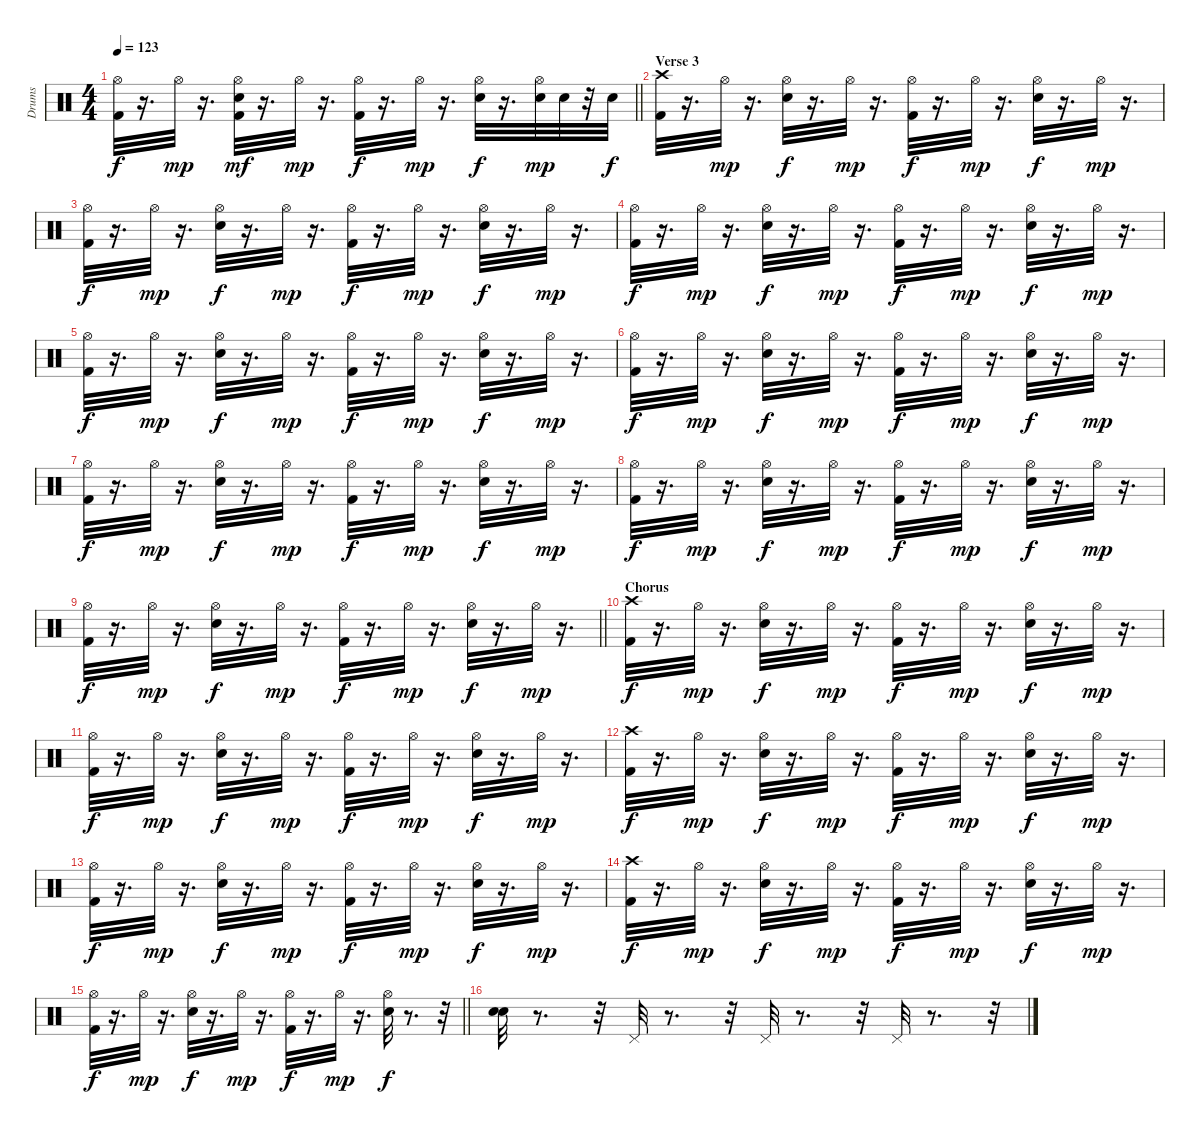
\track ("Drums" "Drums") {instrument percussion}
\staff {score}
\articulation defaults
\ts (4 4)
\tempo 123
\clef neutral
\barLineRight lightlight
\ks c
("Kick (hit) 2" "Hi-Hat (open)").32{dy f} r.16{d} "Hi-Hat (open)".32{dy mp} r.16{d} ("Kick (hit) 2" "Electric Snare (hit)" "Hi-Hat (open)").32{dy mf} r.16{d} "Hi-Hat (open)".32{dy mp} r.16{d} ("Kick (hit) 2" "Hi-Hat (open)").32{dy f} r.16{d} "Hi-Hat (open)".32{dy mp} r.16{d} ("Electric Snare (hit)" "Hi-Hat (open)").32{dy f} r.16{d} ("Electric Snare (hit)" "Hi-Hat (open)").32{dy mp} "Electric Snare (hit)".32 r.32 "Electric Snare (hit)".32{dy f} |
\section ("" "Verse 3")
("Crash high (hit)" "Kick (hit) 2").32 r.16{d} "Hi-Hat (open)".32{dy mp} r.16{d} ("Hi-Hat (open)" "Electric Snare (hit)").32{dy f} r.16{d} "Hi-Hat (open)".32{dy mp} r.16{d} ("Kick (hit) 2" "Hi-Hat (open)").32{dy f} r.16{d} "Hi-Hat (open)".32{dy mp} r.16{d} ("Hi-Hat (open)" "Electric Snare (hit)").32{dy f} r.16{d} "Hi-Hat (open)".32{dy mp} r.16{d} |
("Hi-Hat (open)" "Kick (hit) 2").32{dy f} r.16{d} "Hi-Hat (open)".32{dy mp} r.16{d} ("Hi-Hat (open)" "Electric Snare (hit)").32{dy f} r.16{d} "Hi-Hat (open)".32{dy mp} r.16{d} ("Hi-Hat (open)" "Kick (hit) 2").32{dy f} r.16{d} "Hi-Hat (open)".32{dy mp} r.16{d} ("Hi-Hat (open)" "Electric Snare (hit)").32{dy f} r.16{d} "Hi-Hat (open)".32{dy mp} r.16{d} |
("Hi-Hat (open)" "Kick (hit) 2").32{dy f} r.16{d} "Hi-Hat (open)".32{dy mp} r.16{d} ("Hi-Hat (open)" "Electric Snare (hit)").32{dy f} r.16{d} "Hi-Hat (open)".32{dy mp} r.16{d} ("Hi-Hat (open)" "Kick (hit) 2").32{dy f} r.16{d} "Hi-Hat (open)".32{dy mp} r.16{d} ("Hi-Hat (open)" "Electric Snare (hit)").32{dy f} r.16{d} "Hi-Hat (open)".32{dy mp} r.16{d} |
("Hi-Hat (open)" "Kick (hit) 2").32{dy f} r.16{d} "Hi-Hat (open)".32{dy mp} r.16{d} ("Hi-Hat (open)" "Electric Snare (hit)").32{dy f} r.16{d} "Hi-Hat (open)".32{dy mp} r.16{d} ("Hi-Hat (open)" "Kick (hit) 2").32{dy f} r.16{d} "Hi-Hat (open)".32{dy mp} r.16{d} ("Hi-Hat (open)" "Electric Snare (hit)").32{dy f} r.16{d} "Hi-Hat (open)".32{dy mp} r.16{d} |
("Hi-Hat (open)" "Kick (hit) 2").32{dy f} r.16{d} "Hi-Hat (open)".32{dy mp} r.16{d} ("Hi-Hat (open)" "Electric Snare (hit)").32{dy f} r.16{d} "Hi-Hat (open)".32{dy mp} r.16{d} ("Hi-Hat (open)" "Kick (hit) 2").32{dy f} r.16{d} "Hi-Hat (open)".32{dy mp} r.16{d} ("Hi-Hat (open)" "Electric Snare (hit)").32{dy f} r.16{d} "Hi-Hat (open)".32{dy mp} r.16{d} |
("Hi-Hat (open)" "Kick (hit) 2").32{dy f} r.16{d} "Hi-Hat (open)".32{dy mp} r.16{d} ("Hi-Hat (open)" "Electric Snare (hit)").32{dy f} r.16{d} "Hi-Hat (open)".32{dy mp} r.16{d} ("Hi-Hat (open)" "Kick (hit) 2").32{dy f} r.16{d} "Hi-Hat (open)".32{dy mp} r.16{d} ("Hi-Hat (open)" "Electric Snare (hit)").32{dy f} r.16{d} "Hi-Hat (open)".32{dy mp} r.16{d} |
("Hi-Hat (open)" "Kick (hit) 2").32{dy f} r.16{d} "Hi-Hat (open)".32{dy mp} r.16{d} ("Hi-Hat (open)" "Electric Snare (hit)").32{dy f} r.16{d} "Hi-Hat (open)".32{dy mp} r.16{d} ("Hi-Hat (open)" "Kick (hit) 2").32{dy f} r.16{d} "Hi-Hat (open)".32{dy mp} r.16{d} ("Hi-Hat (open)" "Electric Snare (hit)").32{dy f} r.16{d} "Hi-Hat (open)".32{dy mp} r.16{d} |
\barLineRight lightlight
("Hi-Hat (open)" "Kick (hit) 2").32{dy f} r.16{d} "Hi-Hat (open)".32{dy mp} r.16{d} ("Hi-Hat (open)" "Electric Snare (hit)").32{dy f} r.16{d} "Hi-Hat (open)".32{dy mp} r.16{d} ("Hi-Hat (open)" "Kick (hit) 2").32{dy f} r.16{d} "Hi-Hat (open)".32{dy mp} r.16{d} ("Hi-Hat (open)" "Electric Snare (hit)").32{dy f} r.16{d} "Hi-Hat (open)".32{dy mp} r.16{d} |
\section ("" "Chorus")
("Crash high (hit)" "Kick (hit) 2").32{dy f} r.16{d} "Hi-Hat (open)".32{dy mp} r.16{d} ("Hi-Hat (open)" "Electric Snare (hit)").32{dy f} r.16{d} "Hi-Hat (open)".32{dy mp} r.16{d} ("Kick (hit) 2" "Hi-Hat (open)").32{dy f} r.16{d} "Hi-Hat (open)".32{dy mp} r.16{d} ("Hi-Hat (open)" "Electric Snare (hit)").32{dy f} r.16{d} "Hi-Hat (open)".32{dy mp} r.16{d} |
("Hi-Hat (open)" "Kick (hit) 2").32{dy f} r.16{d} "Hi-Hat (open)".32{dy mp} r.16{d} ("Hi-Hat (open)" "Electric Snare (hit)").32{dy f} r.16{d} "Hi-Hat (open)".32{dy mp} r.16{d} ("Hi-Hat (open)" "Kick (hit) 2").32{dy f} r.16{d} "Hi-Hat (open)".32{dy mp} r.16{d} ("Hi-Hat (open)" "Electric Snare (hit)").32{dy f} r.16{d} "Hi-Hat (open)".32{dy mp} r.16{d} |
("Crash high (hit)" "Kick (hit) 2").32{dy f} r.16{d} "Hi-Hat (open)".32{dy mp} r.16{d} ("Hi-Hat (open)" "Electric Snare (hit)").32{dy f} r.16{d} "Hi-Hat (open)".32{dy mp} r.16{d} ("Hi-Hat (open)" "Kick (hit) 2").32{dy f} r.16{d} "Hi-Hat (open)".32{dy mp} r.16{d} ("Hi-Hat (open)" "Electric Snare (hit)").32{dy f} r.16{d} "Hi-Hat (open)".32{dy mp} r.16{d} |
("Hi-Hat (open)" "Kick (hit) 2").32{dy f} r.16{d} "Hi-Hat (open)".32{dy mp} r.16{d} ("Hi-Hat (open)" "Electric Snare (hit)").32{dy f} r.16{d} "Hi-Hat (open)".32{dy mp} r.16{d} ("Hi-Hat (open)" "Kick (hit) 2").32{dy f} r.16{d} "Hi-Hat (open)".32{dy mp} r.16{d} ("Hi-Hat (open)" "Electric Snare (hit)").32{dy f} r.16{d} "Hi-Hat (open)".32{dy mp} r.16{d} |
("Crash high (hit)" "Kick (hit) 2").32{dy f} r.16{d} "Hi-Hat (open)".32{dy mp} r.16{d} ("Hi-Hat (open)" "Electric Snare (hit)").32{dy f} r.16{d} "Hi-Hat (open)".32{dy mp} r.16{d} ("Kick (hit) 2" "Hi-Hat (open)").32{dy f} r.16{d} "Hi-Hat (open)".32{dy mp} r.16{d} ("Hi-Hat (open)" "Electric Snare (hit)").32{dy f} r.16{d} "Hi-Hat (open)".32{dy mp} r.16{d} |
\barLineRight lightlight
("Hi-Hat (open)" "Kick (hit) 2").32{dy f} r.16{d} "Hi-Hat (open)".32{dy mp} r.16{d} ("Hi-Hat (open)" "Electric Snare (hit)").32{dy f} r.16{d} "Hi-Hat (open)".32{dy mp} r.16{d} ("Hi-Hat (open)" "Kick (hit) 2").32{dy f} r.16{d} "Hi-Hat (open)".32{dy mp} r.16{d} ("Hi-Hat (open)" "Electric Snare (hit)").32{dy f} r.8{d} r.32 |
("Electric Snare (hit)" "Snare (hit) 2").32 r.8{d} r.32 "Pedal Hi-Hat (hit)".32 r.8{d} r.32 "Pedal Hi-Hat (hit)".32 r.8{d} r.32 "Pedal Hi-Hat (hit)".32 r.8{d} r.32
